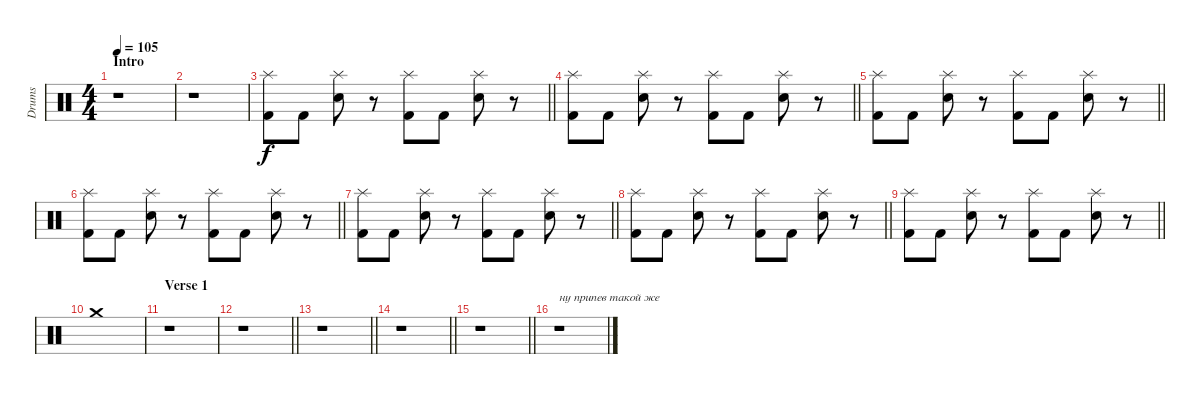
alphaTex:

\track ("Drums" "Drums") {instrument percussion}
\staff {score}
\articulation defaults
\ts (4 4)
\section ("" "Intro")
\tempo 105
\clef neutral
\ks c
r.1{dy f} |
r.1 |
\barLineRight lightlight
("Splash (hit)" "Kick (hit) 2").8 "Kick (hit) 2".8 ("Splash (hit)" "Electric Snare (hit)").8 r.8 ("Splash (hit)" "Kick (hit) 2").8 "Kick (hit) 2".8 ("Splash (hit)" "Electric Snare (hit)").8 r.8 |
\barLineRight lightlight
("Splash (hit)" "Kick (hit) 2").8 "Kick (hit) 2".8 ("Splash (hit)" "Electric Snare (hit)").8 r.8 ("Splash (hit)" "Kick (hit) 2").8 "Kick (hit) 2".8 ("Splash (hit)" "Electric Snare (hit)").8 r.8 |
\barLineRight lightlight
("Splash (hit)" "Kick (hit) 2").8 "Kick (hit) 2".8 ("Splash (hit)" "Electric Snare (hit)").8 r.8 ("Splash (hit)" "Kick (hit) 2").8 "Kick (hit) 2".8 ("Splash (hit)" "Electric Snare (hit)").8 r.8 |
\barLineRight lightlight
("Splash (hit)" "Kick (hit) 2").8 "Kick (hit) 2".8 ("Splash (hit)" "Electric Snare (hit)").8 r.8 ("Splash (hit)" "Kick (hit) 2").8 "Kick (hit) 2".8 ("Splash (hit)" "Electric Snare (hit)").8 r.8 |
\barLineRight lightlight
("Splash (hit)" "Kick (hit) 2").8 "Kick (hit) 2".8 ("Splash (hit)" "Electric Snare (hit)").8 r.8 ("Splash (hit)" "Kick (hit) 2").8 "Kick (hit) 2".8 ("Splash (hit)" "Electric Snare (hit)").8 r.8 |
\barLineRight lightlight
("Splash (hit)" "Kick (hit) 2").8 "Kick (hit) 2".8 ("Splash (hit)" "Electric Snare (hit)").8 r.8 ("Splash (hit)" "Kick (hit) 2").8 "Kick (hit) 2".8 ("Splash (hit)" "Electric Snare (hit)").8 r.8 |
\barLineRight lightlight
("Splash (hit)" "Kick (hit) 2").8 "Kick (hit) 2".8 ("Splash (hit)" "Electric Snare (hit)").8 r.8 ("Splash (hit)" "Kick (hit) 2").8 "Kick (hit) 2".8 ("Splash (hit)" "Electric Snare (hit)").8 r.8 |
"Crash medium (hit)".1 |
\section ("" "Verse 1")
r.1 |
\barLineRight lightlight
r.1 |
\barLineRight lightlight
r.1 |
\barLineRight lightlight
r.1 |
\barLineRight lightlight
r.1 |
r.1{txt "ну припев такой же"}
